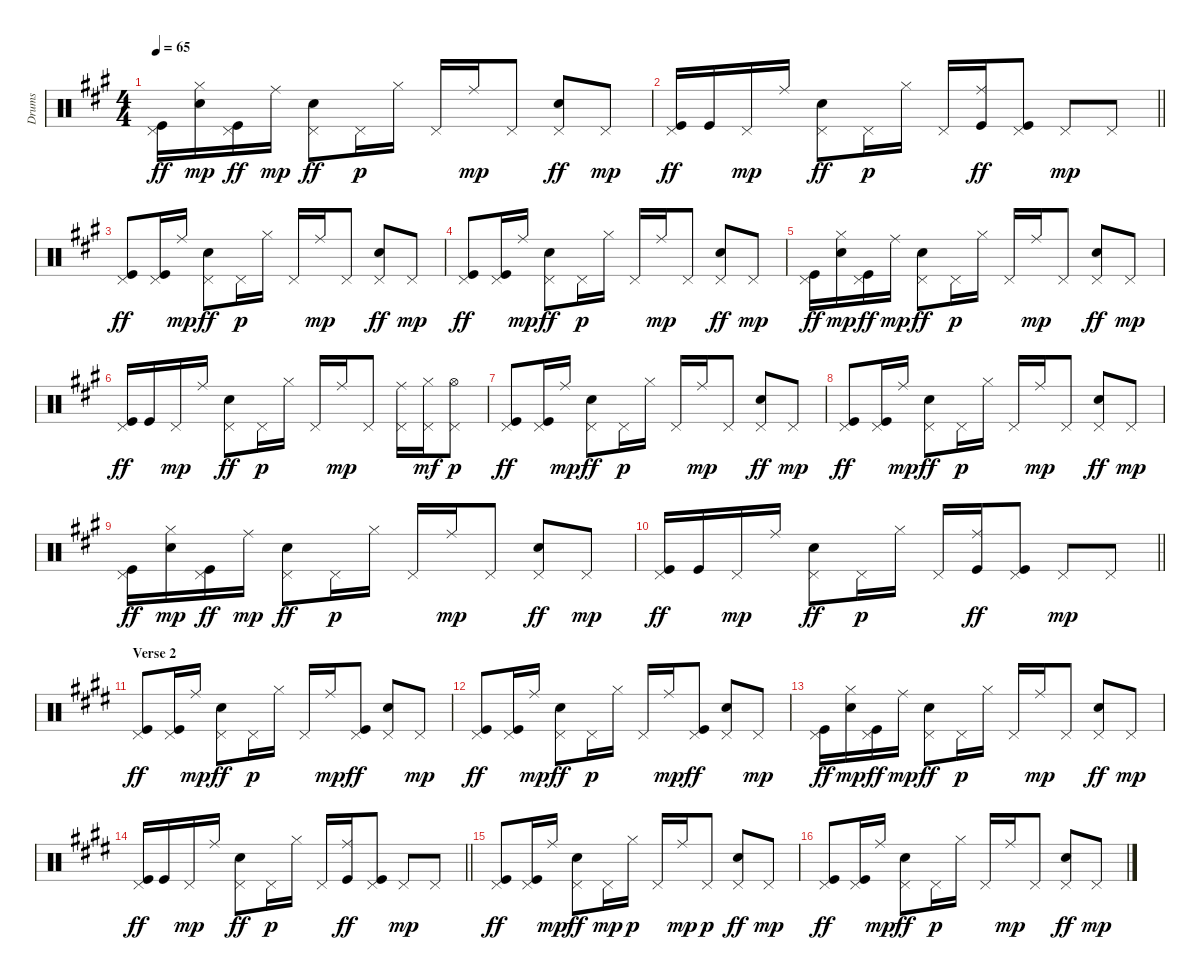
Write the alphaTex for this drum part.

\track ("Drums" "Drums") {instrument percussion}
\staff {score}
\articulation defaults
\ts (4 4)
\tempo 65
\clef neutral
\ks f#minor
("Pedal Hi-Hat (hit)" "Kick (hit)").16{dy ff} ("Hi-Hat (closed)" "Electric Snare (hit)").16{dy mp} ("Pedal Hi-Hat (hit)" "Kick (hit)").16{dy ff} "Ride (middle)".16{dy mp} ("Pedal Hi-Hat (hit)" "Electric Snare (hit)").8{dy ff} "Pedal Hi-Hat (hit)".16{dy p} "Hi-Hat (closed)".16 "Pedal Hi-Hat (hit)".16 "Ride (middle)".16{dy mp} "Pedal Hi-Hat (hit)".8 ("Pedal Hi-Hat (hit)" "Electric Snare (hit)").8{dy ff} "Pedal Hi-Hat (hit)".8{dy mp} |
\barLineRight lightlight
("Pedal Hi-Hat (hit)" "Kick (hit)").16{dy ff} "Kick (hit)".16 "Pedal Hi-Hat (hit)".16{dy mp} "Ride (middle)".16 ("Pedal Hi-Hat (hit)" "Electric Snare (hit)").8{dy ff} "Pedal Hi-Hat (hit)".16{dy p} "Hi-Hat (closed)".16 "Pedal Hi-Hat (hit)".16 ("Ride (middle)" "Kick (hit)").16{dy ff} ("Pedal Hi-Hat (hit)" "Kick (hit)").8 "Pedal Hi-Hat (hit)".8{dy mp} "Pedal Hi-Hat (hit)".8 |
\section ("" "")
("Pedal Hi-Hat (hit)" "Kick (hit)").8{dy ff} ("Pedal Hi-Hat (hit)" "Kick (hit)").16 "Ride (middle)".16{dy mp} ("Pedal Hi-Hat (hit)" "Electric Snare (hit)").8{dy ff} "Pedal Hi-Hat (hit)".16{dy p} "Hi-Hat (closed)".16 "Pedal Hi-Hat (hit)".16 "Ride (middle)".16{dy mp} "Pedal Hi-Hat (hit)".8 ("Pedal Hi-Hat (hit)" "Electric Snare (hit)").8{dy ff} "Pedal Hi-Hat (hit)".8{dy mp} |
("Pedal Hi-Hat (hit)" "Kick (hit)").8{dy ff} ("Pedal Hi-Hat (hit)" "Kick (hit)").16 "Ride (middle)".16{dy mp} ("Pedal Hi-Hat (hit)" "Electric Snare (hit)").8{dy ff} "Pedal Hi-Hat (hit)".16{dy p} "Hi-Hat (closed)".16 "Pedal Hi-Hat (hit)".16 "Ride (middle)".16{dy mp} "Pedal Hi-Hat (hit)".8 ("Pedal Hi-Hat (hit)" "Electric Snare (hit)").8{dy ff} "Pedal Hi-Hat (hit)".8{dy mp} |
("Pedal Hi-Hat (hit)" "Kick (hit)").16{dy ff} ("Hi-Hat (closed)" "Electric Snare (hit)").16{dy mp} ("Pedal Hi-Hat (hit)" "Kick (hit)").16{dy ff} "Ride (middle)".16{dy mp} ("Pedal Hi-Hat (hit)" "Electric Snare (hit)").8{dy ff} "Pedal Hi-Hat (hit)".16{dy p} "Hi-Hat (closed)".16 "Pedal Hi-Hat (hit)".16 "Ride (middle)".16{dy mp} "Pedal Hi-Hat (hit)".8 ("Pedal Hi-Hat (hit)" "Electric Snare (hit)").8{dy ff} "Pedal Hi-Hat (hit)".8{dy mp} |
("Pedal Hi-Hat (hit)" "Kick (hit)").16{dy ff} "Kick (hit)".16 "Pedal Hi-Hat (hit)".16{dy mp} "Ride (middle)".16 ("Pedal Hi-Hat (hit)" "Electric Snare (hit)").8{dy ff} "Pedal Hi-Hat (hit)".16{dy p} "Hi-Hat (closed)".16 "Pedal Hi-Hat (hit)".16 "Ride (middle)".16{dy mp} "Pedal Hi-Hat (hit)".8 ("Ride (middle)" "Pedal Hi-Hat (hit)").16 ("Hi-Hat (closed)" "Pedal Hi-Hat (hit)").16{dy mf} ("Pedal Hi-Hat (hit)" "Hi-Hat (open)").8{dy p} |
("Pedal Hi-Hat (hit)" "Kick (hit)").8{dy ff} ("Pedal Hi-Hat (hit)" "Kick (hit)").16 "Ride (middle)".16{dy mp} ("Pedal Hi-Hat (hit)" "Electric Snare (hit)").8{dy ff} "Pedal Hi-Hat (hit)".16{dy p} "Hi-Hat (closed)".16 "Pedal Hi-Hat (hit)".16 "Ride (middle)".16{dy mp} "Pedal Hi-Hat (hit)".8 ("Pedal Hi-Hat (hit)" "Electric Snare (hit)").8{dy ff} "Pedal Hi-Hat (hit)".8{dy mp} |
("Pedal Hi-Hat (hit)" "Kick (hit)").8{dy ff} ("Pedal Hi-Hat (hit)" "Kick (hit)").16 "Ride (middle)".16{dy mp} ("Pedal Hi-Hat (hit)" "Electric Snare (hit)").8{dy ff} "Pedal Hi-Hat (hit)".16{dy p} "Hi-Hat (closed)".16 "Pedal Hi-Hat (hit)".16 "Ride (middle)".16{dy mp} "Pedal Hi-Hat (hit)".8 ("Pedal Hi-Hat (hit)" "Electric Snare (hit)").8{dy ff} "Pedal Hi-Hat (hit)".8{dy mp} |
("Pedal Hi-Hat (hit)" "Kick (hit)").16{dy ff} ("Hi-Hat (closed)" "Electric Snare (hit)").16{dy mp} ("Pedal Hi-Hat (hit)" "Kick (hit)").16{dy ff} "Ride (middle)".16{dy mp} ("Pedal Hi-Hat (hit)" "Electric Snare (hit)").8{dy ff} "Pedal Hi-Hat (hit)".16{dy p} "Hi-Hat (closed)".16 "Pedal Hi-Hat (hit)".16 "Ride (middle)".16{dy mp} "Pedal Hi-Hat (hit)".8 ("Pedal Hi-Hat (hit)" "Electric Snare (hit)").8{dy ff} "Pedal Hi-Hat (hit)".8{dy mp} |
\barLineRight lightlight
("Pedal Hi-Hat (hit)" "Kick (hit)").16{dy ff} "Kick (hit)".16 "Pedal Hi-Hat (hit)".16{dy mp} "Ride (middle)".16 ("Pedal Hi-Hat (hit)" "Electric Snare (hit)").8{dy ff} "Pedal Hi-Hat (hit)".16{dy p} "Hi-Hat (closed)".16 "Pedal Hi-Hat (hit)".16 ("Ride (middle)" "Kick (hit)").16{dy ff} ("Pedal Hi-Hat (hit)" "Kick (hit)").8 "Pedal Hi-Hat (hit)".8{dy mp} "Pedal Hi-Hat (hit)".8 |
\section ("" "Verse 2")
\ks c#minor
("Pedal Hi-Hat (hit)" "Kick (hit)").8{dy ff} ("Pedal Hi-Hat (hit)" "Kick (hit)").16 "Ride (middle)".16{dy mp} ("Pedal Hi-Hat (hit)" "Electric Snare (hit)").8{dy ff} "Pedal Hi-Hat (hit)".16{dy p} "Hi-Hat (closed)".16 "Pedal Hi-Hat (hit)".16 "Ride (middle)".16{dy mp} ("Pedal Hi-Hat (hit)" "Kick (hit)").8{dy ff} ("Pedal Hi-Hat (hit)" "Electric Snare (hit)").8 "Pedal Hi-Hat (hit)".8{dy mp} |
("Pedal Hi-Hat (hit)" "Kick (hit)").8{dy ff} ("Pedal Hi-Hat (hit)" "Kick (hit)").16 "Ride (middle)".16{dy mp} ("Pedal Hi-Hat (hit)" "Electric Snare (hit)").8{dy ff} "Pedal Hi-Hat (hit)".16{dy p} "Hi-Hat (closed)".16 "Pedal Hi-Hat (hit)".16 "Ride (middle)".16{dy mp} ("Pedal Hi-Hat (hit)" "Kick (hit)").8{dy ff} ("Pedal Hi-Hat (hit)" "Electric Snare (hit)").8 "Pedal Hi-Hat (hit)".8{dy mp} |
("Pedal Hi-Hat (hit)" "Kick (hit)").16{dy ff} ("Hi-Hat (closed)" "Electric Snare (hit)").16{dy mp} ("Pedal Hi-Hat (hit)" "Kick (hit)").16{dy ff} "Ride (middle)".16{dy mp} ("Pedal Hi-Hat (hit)" "Electric Snare (hit)").8{dy ff} "Pedal Hi-Hat (hit)".16{dy p} "Hi-Hat (closed)".16 "Pedal Hi-Hat (hit)".16 "Ride (middle)".16{dy mp} "Pedal Hi-Hat (hit)".8 ("Pedal Hi-Hat (hit)" "Electric Snare (hit)").8{dy ff} "Pedal Hi-Hat (hit)".8{dy mp} |
\barLineRight lightlight
("Pedal Hi-Hat (hit)" "Kick (hit)").16{dy ff} "Kick (hit)".16 "Pedal Hi-Hat (hit)".16{dy mp} "Ride (middle)".16 ("Pedal Hi-Hat (hit)" "Electric Snare (hit)").8{dy ff} "Pedal Hi-Hat (hit)".16{dy p} "Hi-Hat (closed)".16 "Pedal Hi-Hat (hit)".16 ("Ride (middle)" "Kick (hit)").16{dy ff} ("Pedal Hi-Hat (hit)" "Kick (hit)").8 "Pedal Hi-Hat (hit)".8{dy mp} "Pedal Hi-Hat (hit)".8 |
\section ("" "")
("Pedal Hi-Hat (hit)" "Kick (hit)").8{dy ff} ("Pedal Hi-Hat (hit)" "Kick (hit)").16 "Ride (middle)".16{dy mp} ("Pedal Hi-Hat (hit)" "Electric Snare (hit)").8{dy ff} "Pedal Hi-Hat (hit)".16{dy mp} "Hi-Hat (closed)".16{dy p} "Pedal Hi-Hat (hit)".16 "Ride (middle)".16{dy mp} "Pedal Hi-Hat (hit)".8{dy p} ("Pedal Hi-Hat (hit)" "Electric Snare (hit)").8{dy ff} "Pedal Hi-Hat (hit)".8{dy mp} |
("Pedal Hi-Hat (hit)" "Kick (hit)").8{dy ff} ("Pedal Hi-Hat (hit)" "Kick (hit)").16 "Ride (middle)".16{dy mp} ("Pedal Hi-Hat (hit)" "Electric Snare (hit)").8{dy ff} "Pedal Hi-Hat (hit)".16{dy p} "Hi-Hat (closed)".16 "Pedal Hi-Hat (hit)".16 "Ride (middle)".16{dy mp} "Pedal Hi-Hat (hit)".8 ("Pedal Hi-Hat (hit)" "Electric Snare (hit)").8{dy ff} "Pedal Hi-Hat (hit)".8{dy mp}
